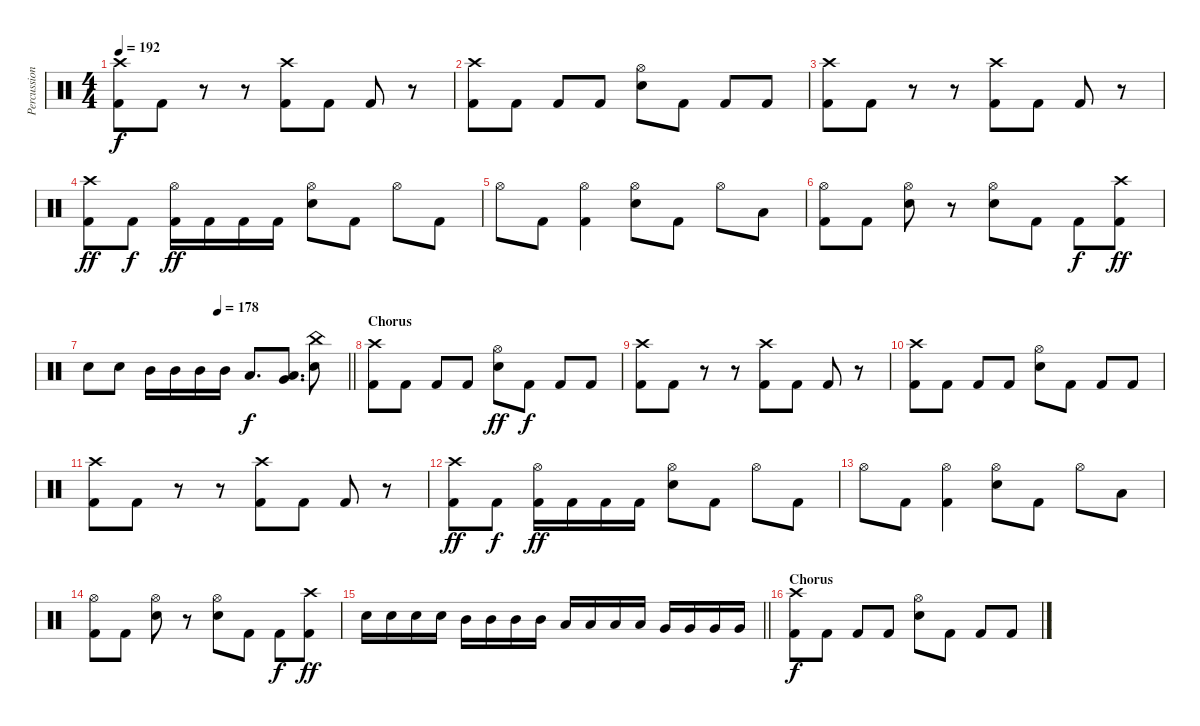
\track ("Percussion" "Percussion") {instrument percussion}
\staff {score}
\articulation defaults
\ts (4 4)
\tempo 192
\clef neutral
\ks c
("Crash high (hit)" "Kick (hit) 2").8{dy f} "Kick (hit) 2".8 r.8 r.8 ("Crash high (hit)" "Kick (hit) 2").8 "Kick (hit) 2".8 "Kick (hit) 2".8 r.8 |
("Crash high (hit)" "Kick (hit) 2").8 "Kick (hit) 2".8 "Kick (hit) 2".8 "Kick (hit) 2".8 ("Hi-Hat (open)" "Electric Snare (hit)").8 "Kick (hit) 2".8 "Kick (hit) 2".8 "Kick (hit) 2".8 |
("Crash high (hit)" "Kick (hit) 2").8 "Kick (hit) 2".8 r.8 r.8 ("Crash high (hit)" "Kick (hit) 2").8 "Kick (hit) 2".8 "Kick (hit) 2".8 r.8 |
("Crash high (hit)" "Kick (hit) 2").8{dy ff} "Kick (hit) 2".8{dy f} ("Hi-Hat (open)" "Kick (hit) 2").16{dy ff} "Kick (hit) 2".16 "Kick (hit) 2".16 "Kick (hit) 2".16 ("Hi-Hat (open)" "Electric Snare (hit)").8 "Kick (hit) 2".8 "Hi-Hat (open)".8 "Kick (hit) 2".8 |
"Hi-Hat (open)".8 "Kick (hit) 2".8 ("Hi-Hat (open)" "Kick (hit) 2").4 ("Hi-Hat (open)" "Electric Snare (hit)").8 "Kick (hit) 2".8 "Hi-Hat (open)".8 "Low Tom (hit)".8 |
("Hi-Hat (open)" "Kick (hit) 2").8 "Kick (hit) 2".8 ("Hi-Hat (open)" "Electric Snare (hit)").8 r.8 ("Hi-Hat (open)" "Electric Snare (hit)").8 "Kick (hit) 2".8 "Kick (hit) 2".8{dy f} ("Crash high (hit)" "Kick (hit) 2").8{dy ff} |
\tempo (178 0.5)
\barLineRight lightlight "Electric Snare (hit)".8 "Electric Snare (hit)".8 "Mid Tom (hit)".16 "Mid Tom (hit)".16 "Mid Tom (hit)".16 "Mid Tom (hit)".16 "Low Tom (hit)".8{d dy f}
("Low Tom (hit)" "Very Low Tom (hit)").8{d} ("China (hit)" "Electric Snare (hit)").8 |
\section ("" "Chorus")
("Crash high (hit)" "Kick (hit) 2").8 "Kick (hit) 2".8 "Kick (hit) 2".8 "Kick (hit) 2".8 ("Hi-Hat (open)" "Electric Snare (hit)").8{dy ff} "Kick (hit) 2".8{dy f} "Kick (hit) 2".8 "Kick (hit) 2".8 |
("Crash high (hit)" "Kick (hit) 2").8 "Kick (hit) 2".8 r.8 r.8 ("Crash high (hit)" "Kick (hit) 2").8 "Kick (hit) 2".8 "Kick (hit) 2".8 r.8 |
("Crash high (hit)" "Kick (hit) 2").8 "Kick (hit) 2".8 "Kick (hit) 2".8 "Kick (hit) 2".8 ("Hi-Hat (open)" "Electric Snare (hit)").8 "Kick (hit) 2".8 "Kick (hit) 2".8 "Kick (hit) 2".8 |
("Crash high (hit)" "Kick (hit) 2").8 "Kick (hit) 2".8 r.8 r.8 ("Crash high (hit)" "Kick (hit) 2").8 "Kick (hit) 2".8 "Kick (hit) 2".8 r.8 |
("Crash high (hit)" "Kick (hit) 2").8{dy ff} "Kick (hit) 2".8{dy f} ("Hi-Hat (open)" "Kick (hit) 2").16{dy ff} "Kick (hit) 2".16 "Kick (hit) 2".16 "Kick (hit) 2".16 ("Hi-Hat (open)" "Electric Snare (hit)").8 "Kick (hit) 2".8 "Hi-Hat (open)".8 "Kick (hit) 2".8 |
"Hi-Hat (open)".8 "Kick (hit) 2".8 ("Hi-Hat (open)" "Kick (hit) 2").4 ("Hi-Hat (open)" "Electric Snare (hit)").8 "Kick (hit) 2".8 "Hi-Hat (open)".8 "Low Tom (hit)".8 |
("Hi-Hat (open)" "Kick (hit) 2").8 "Kick (hit) 2".8 ("Hi-Hat (open)" "Electric Snare (hit)").8 r.8 ("Hi-Hat (open)" "Electric Snare (hit)").8 "Kick (hit) 2".8 "Kick (hit) 2".8{dy f} ("Crash high (hit)" "Kick (hit) 2").8{dy ff} |
\barLineRight lightlight "Electric Snare (hit)".16 "Electric Snare (hit)".16 "Electric Snare (hit)".16 "Electric Snare (hit)".16 "Mid Tom (hit)".16 "Mid Tom (hit)".16 "Mid Tom (hit)".16 "Mid Tom (hit)".16 "Low Tom (hit)".16 "Low Tom (hit)".16 "Low Tom (hit)".16 "Low Tom (hit)".16 "Very Low Tom (hit)".16 "Very Low Tom (hit)".16 "Very Low Tom (hit)".16 "Very Low Tom (hit)".16
|
\section ("" "Chorus")
("Crash high (hit)" "Kick (hit) 2").8{dy f} "Kick (hit) 2".8 "Kick (hit) 2".8 "Kick (hit) 2".8 ("Hi-Hat (open)" "Electric Snare (hit)").8 "Kick (hit) 2".8 "Kick (hit) 2".8 "Kick (hit) 2".8
